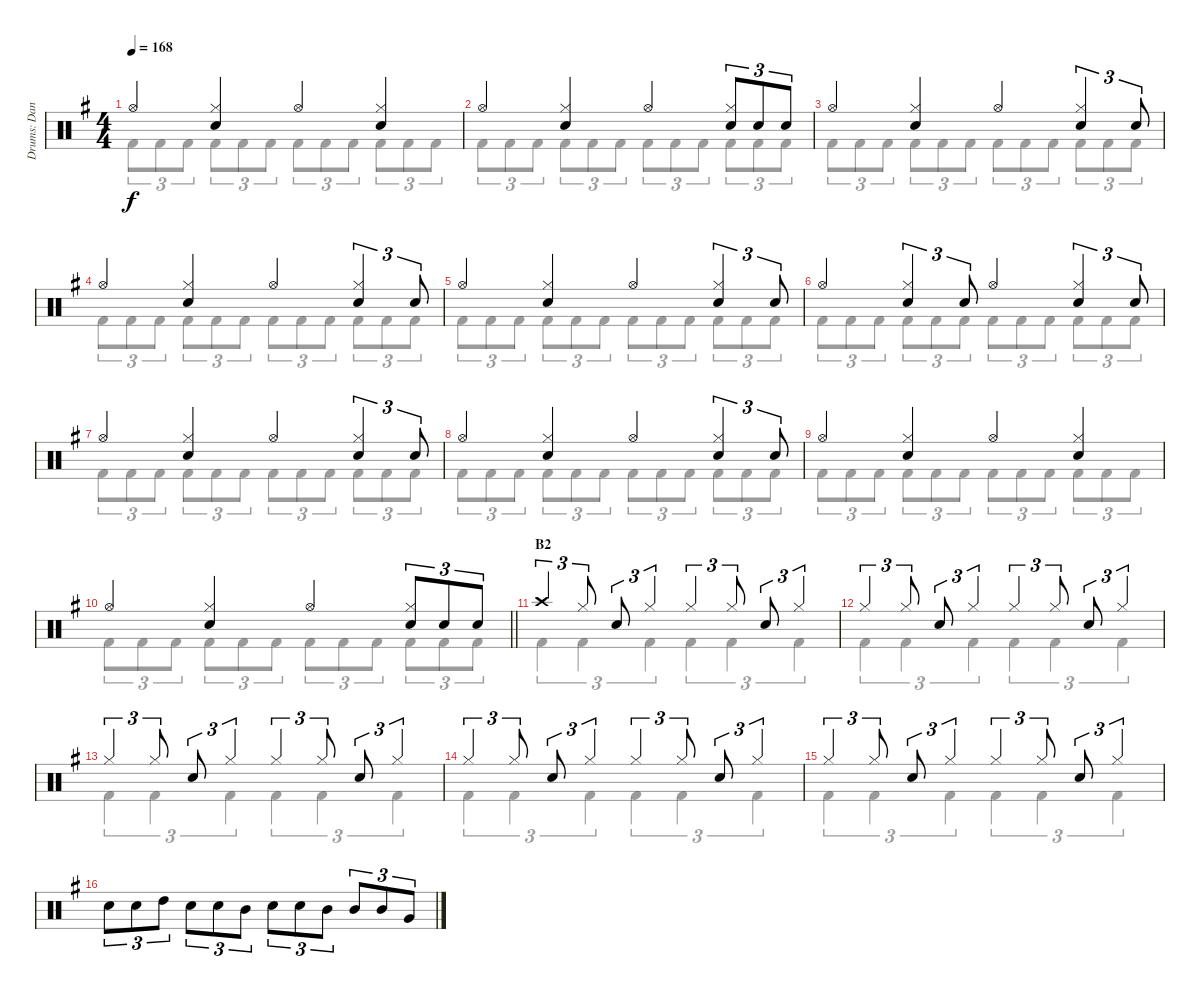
\track ("Drums: Dana" "Drums: Dan") {instrument percussion}
\staff {score}
\articulation defaults
\voice
\ts (4 4)
\tempo 168
\clef neutral
\ks g "Hi-Hat (open)".4{dy f}
("Hi-Hat (closed)" "Snare (hit) 2").4 "Hi-Hat (open)".4 ("Hi-Hat (closed)" "Snare (hit) 2").4 |
"Hi-Hat (open)".4 ("Hi-Hat (closed)" "Snare (hit) 2").4 "Hi-Hat (open)".4 ("Hi-Hat (closed)" "Snare (hit) 2").8{tu (3 2)} "Snare (hit) 2".8{tu (3 2)} "Snare (hit) 2".8{tu (3 2)} |
"Hi-Hat (open)".4 ("Hi-Hat (closed)" "Snare (hit) 2").4 "Hi-Hat (open)".4 ("Hi-Hat (closed)" "Snare (hit) 2").4{tu (3 2)} "Snare (hit) 2".8{tu (3 2)} |
"Hi-Hat (open)".4 ("Hi-Hat (closed)" "Snare (hit) 2").4 "Hi-Hat (open)".4 ("Hi-Hat (closed)" "Snare (hit) 2").4{tu (3 2)} "Snare (hit) 2".8{tu (3 2)} |
"Hi-Hat (open)".4 ("Hi-Hat (closed)" "Snare (hit) 2").4 "Hi-Hat (open)".4 ("Hi-Hat (closed)" "Snare (hit) 2").4{tu (3 2)} "Snare (hit) 2".8{tu (3 2)} |
"Hi-Hat (open)".4 ("Hi-Hat (closed)" "Snare (hit) 2").4{tu (3 2)} "Snare (hit) 2".8{tu (3 2)} "Hi-Hat (open)".4 ("Hi-Hat (closed)" "Snare (hit) 2").4{tu (3 2)} "Snare (hit) 2".8{tu (3 2)} |
"Hi-Hat (open)".4 ("Hi-Hat (closed)" "Snare (hit) 2").4 "Hi-Hat (open)".4 ("Hi-Hat (closed)" "Snare (hit) 2").4{tu (3 2)} "Snare (hit) 2".8{tu (3 2)} |
"Hi-Hat (open)".4 ("Hi-Hat (closed)" "Snare (hit) 2").4 "Hi-Hat (open)".4 ("Hi-Hat (closed)" "Snare (hit) 2").4{tu (3 2)} "Snare (hit) 2".8{tu (3 2)} |
"Hi-Hat (open)".4 ("Hi-Hat (closed)" "Snare (hit) 2").4 "Hi-Hat (open)".4 ("Hi-Hat (closed)" "Snare (hit) 2").4 |
\barLineRight lightlight "Hi-Hat (open)".4
("Hi-Hat (closed)" "Snare (hit) 2").4 "Hi-Hat (open)".4 ("Hi-Hat (closed)" "Snare (hit) 2").8{tu (3 2)} "Snare (hit) 2".8{tu (3 2)} "Snare (hit) 2".8{tu (3 2)} |
\section ("" "B2")
"Crash high (hit)".4{tu (3 2)} "Hi-Hat (closed)".8{tu (3 2)} "Snare (hit) 2".8{tu (3 2)} "Hi-Hat (closed)".4{tu (3 2)} "Hi-Hat (closed)".4{tu (3 2)} "Hi-Hat (closed)".8{tu (3 2)} "Snare (hit) 2".8{tu (3 2)} "Hi-Hat (closed)".4{tu (3 2)} |
"Hi-Hat (closed)".4{tu (3 2)} "Hi-Hat (closed)".8{tu (3 2)} "Snare (hit) 2".8{tu (3 2)} "Hi-Hat (closed)".4{tu (3 2)} "Hi-Hat (closed)".4{tu (3 2)} "Hi-Hat (closed)".8{tu (3 2)} "Snare (hit) 2".8{tu (3 2)} "Hi-Hat (closed)".4{tu (3 2)} |
"Hi-Hat (closed)".4{tu (3 2)} "Hi-Hat (closed)".8{tu (3 2)} "Snare (hit) 2".8{tu (3 2)} "Hi-Hat (closed)".4{tu (3 2)} "Hi-Hat (closed)".4{tu (3 2)} "Hi-Hat (closed)".8{tu (3 2)} "Snare (hit) 2".8{tu (3 2)} "Hi-Hat (closed)".4{tu (3 2)} |
"Hi-Hat (closed)".4{tu (3 2)} "Hi-Hat (closed)".8{tu (3 2)} "Snare (hit) 2".8{tu (3 2)} "Hi-Hat (closed)".4{tu (3 2)} "Hi-Hat (closed)".4{tu (3 2)} "Hi-Hat (closed)".8{tu (3 2)} "Snare (hit) 2".8{tu (3 2)} "Hi-Hat (closed)".4{tu (3 2)} |
"Hi-Hat (closed)".4{tu (3 2)} "Hi-Hat (closed)".8{tu (3 2)} "Snare (hit) 2".8{tu (3 2)} "Hi-Hat (closed)".4{tu (3 2)} "Hi-Hat (closed)".4{tu (3 2)} "Hi-Hat (closed)".8{tu (3 2)} "Snare (hit) 2".8{tu (3 2)} "Hi-Hat (closed)".4{tu (3 2)} |
"Snare (hit) 2".8{tu (3 2)} "Snare (hit) 2".8{tu (3 2)} "High Tom (hit)".8{tu (3 2)} "Snare (hit) 2".8{tu (3 2)} "Snare (hit) 2".8{tu (3 2)} "Mid Tom (hit)".8{tu (3 2)} "Snare (hit) 2".8{tu (3 2)} "Snare (hit) 2".8{tu (3 2)} "Mid Tom (hit)".8{tu (3 2)} "Mid Tom (hit)".8{tu (3 2)} "Mid Tom (hit)".8{tu (3 2)} "Very Low Tom (hit)".8{tu (3 2)}
\voice
\clef neutral
\ottava regular
\simile none
\ks g "Kick (hit) 2".8{tu (3 2) dy f} "Kick (hit) 2".8{tu (3 2)} "Kick (hit) 2".8{tu (3 2)} "Kick (hit) 2".8{tu (3 2)} "Kick (hit) 2".8{tu (3 2)} "Kick (hit) 2".8{tu (3 2)} "Kick (hit) 2".8{tu (3 2)} "Kick (hit) 2".8{tu (3 2)} "Kick (hit) 2".8{tu (3 2)} "Kick (hit) 2".8{tu (3 2)} "Kick (hit) 2".8{tu (3 2)} "Kick (hit) 2".8{tu (3 2)}
|
"Kick (hit) 2".8{tu (3 2)} "Kick (hit) 2".8{tu (3 2)} "Kick (hit) 2".8{tu (3 2)} "Kick (hit) 2".8{tu (3 2)} "Kick (hit) 2".8{tu (3 2)} "Kick (hit) 2".8{tu (3 2)} "Kick (hit) 2".8{tu (3 2)} "Kick (hit) 2".8{tu (3 2)} "Kick (hit) 2".8{tu (3 2)} "Kick (hit) 2".8{tu (3 2)} "Kick (hit) 2".8{tu (3 2)} "Kick (hit) 2".8{tu (3 2)} |
"Kick (hit) 2".8{tu (3 2)} "Kick (hit) 2".8{tu (3 2)} "Kick (hit) 2".8{tu (3 2)} "Kick (hit) 2".8{tu (3 2)} "Kick (hit) 2".8{tu (3 2)} "Kick (hit) 2".8{tu (3 2)} "Kick (hit) 2".8{tu (3 2)} "Kick (hit) 2".8{tu (3 2)} "Kick (hit) 2".8{tu (3 2)} "Kick (hit) 2".8{tu (3 2)} "Kick (hit) 2".8{tu (3 2)} "Kick (hit) 2".8{tu (3 2)} |
"Kick (hit) 2".8{tu (3 2)} "Kick (hit) 2".8{tu (3 2)} "Kick (hit) 2".8{tu (3 2)} "Kick (hit) 2".8{tu (3 2)} "Kick (hit) 2".8{tu (3 2)} "Kick (hit) 2".8{tu (3 2)} "Kick (hit) 2".8{tu (3 2)} "Kick (hit) 2".8{tu (3 2)} "Kick (hit) 2".8{tu (3 2)} "Kick (hit) 2".8{tu (3 2)} "Kick (hit) 2".8{tu (3 2)} "Kick (hit) 2".8{tu (3 2)} |
"Kick (hit) 2".8{tu (3 2)} "Kick (hit) 2".8{tu (3 2)} "Kick (hit) 2".8{tu (3 2)} "Kick (hit) 2".8{tu (3 2)} "Kick (hit) 2".8{tu (3 2)} "Kick (hit) 2".8{tu (3 2)} "Kick (hit) 2".8{tu (3 2)} "Kick (hit) 2".8{tu (3 2)} "Kick (hit) 2".8{tu (3 2)} "Kick (hit) 2".8{tu (3 2)} "Kick (hit) 2".8{tu (3 2)} "Kick (hit) 2".8{tu (3 2)} |
"Kick (hit) 2".8{tu (3 2)} "Kick (hit) 2".8{tu (3 2)} "Kick (hit) 2".8{tu (3 2)} "Kick (hit) 2".8{tu (3 2)} "Kick (hit) 2".8{tu (3 2)} "Kick (hit) 2".8{tu (3 2)} "Kick (hit) 2".8{tu (3 2)} "Kick (hit) 2".8{tu (3 2)} "Kick (hit) 2".8{tu (3 2)} "Kick (hit) 2".8{tu (3 2)} "Kick (hit) 2".8{tu (3 2)} "Kick (hit) 2".8{tu (3 2)} |
"Kick (hit) 2".8{tu (3 2)} "Kick (hit) 2".8{tu (3 2)} "Kick (hit) 2".8{tu (3 2)} "Kick (hit) 2".8{tu (3 2)} "Kick (hit) 2".8{tu (3 2)} "Kick (hit) 2".8{tu (3 2)} "Kick (hit) 2".8{tu (3 2)} "Kick (hit) 2".8{tu (3 2)} "Kick (hit) 2".8{tu (3 2)} "Kick (hit) 2".8{tu (3 2)} "Kick (hit) 2".8{tu (3 2)} "Kick (hit) 2".8{tu (3 2)} |
"Kick (hit) 2".8{tu (3 2)} "Kick (hit) 2".8{tu (3 2)} "Kick (hit) 2".8{tu (3 2)} "Kick (hit) 2".8{tu (3 2)} "Kick (hit) 2".8{tu (3 2)} "Kick (hit) 2".8{tu (3 2)} "Kick (hit) 2".8{tu (3 2)} "Kick (hit) 2".8{tu (3 2)} "Kick (hit) 2".8{tu (3 2)} "Kick (hit) 2".8{tu (3 2)} "Kick (hit) 2".8{tu (3 2)} "Kick (hit) 2".8{tu (3 2)} |
"Kick (hit) 2".8{tu (3 2)} "Kick (hit) 2".8{tu (3 2)} "Kick (hit) 2".8{tu (3 2)} "Kick (hit) 2".8{tu (3 2)} "Kick (hit) 2".8{tu (3 2)} "Kick (hit) 2".8{tu (3 2)} "Kick (hit) 2".8{tu (3 2)} "Kick (hit) 2".8{tu (3 2)} "Kick (hit) 2".8{tu (3 2)} "Kick (hit) 2".8{tu (3 2)} "Kick (hit) 2".8{tu (3 2)} "Kick (hit) 2".8{tu (3 2)} |
\barLineRight lightlight "Kick (hit) 2".8{tu (3 2)} "Kick (hit) 2".8{tu (3 2)} "Kick (hit) 2".8{tu (3 2)} "Kick (hit) 2".8{tu (3 2)} "Kick (hit) 2".8{tu (3 2)} "Kick (hit) 2".8{tu (3 2)} "Kick (hit) 2".8{tu (3 2)} "Kick (hit) 2".8{tu (3 2)} "Kick (hit) 2".8{tu (3 2)} "Kick (hit) 2".8{tu (3 2)} "Kick (hit) 2".8{tu (3 2)} "Kick (hit) 2".8{tu (3 2)}
|
"Kick (hit) 2".4{tu (3 2)} "Kick (hit) 2".4{tu (3 2)} "Kick (hit) 2".4{tu (3 2)} "Kick (hit) 2".4{tu (3 2)} "Kick (hit) 2".4{tu (3 2)} "Kick (hit) 2".4{tu (3 2)} |
"Kick (hit) 2".4{tu (3 2)} "Kick (hit) 2".4{tu (3 2)} "Kick (hit) 2".4{tu (3 2)} "Kick (hit) 2".4{tu (3 2)} "Kick (hit) 2".4{tu (3 2)} "Kick (hit) 2".4{tu (3 2)} |
"Kick (hit) 2".4{tu (3 2)} "Kick (hit) 2".4{tu (3 2)} "Kick (hit) 2".4{tu (3 2)} "Kick (hit) 2".4{tu (3 2)} "Kick (hit) 2".4{tu (3 2)} "Kick (hit) 2".4{tu (3 2)} |
"Kick (hit) 2".4{tu (3 2)} "Kick (hit) 2".4{tu (3 2)} "Kick (hit) 2".4{tu (3 2)} "Kick (hit) 2".4{tu (3 2)} "Kick (hit) 2".4{tu (3 2)} "Kick (hit) 2".4{tu (3 2)} |
"Kick (hit) 2".4{tu (3 2)} "Kick (hit) 2".4{tu (3 2)} "Kick (hit) 2".4{tu (3 2)} "Kick (hit) 2".4{tu (3 2)} "Kick (hit) 2".4{tu (3 2)} "Kick (hit) 2".4{tu (3 2)} |
